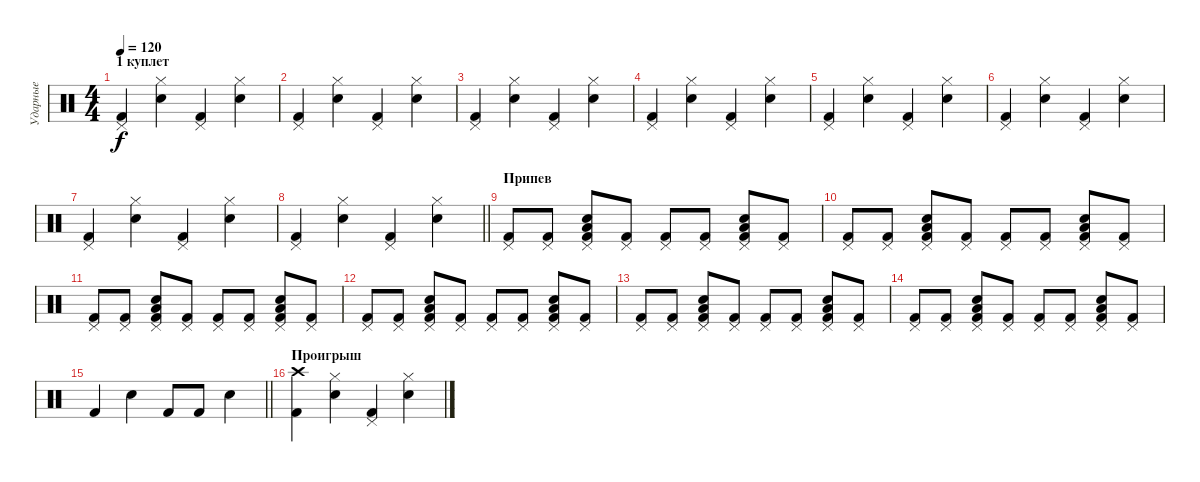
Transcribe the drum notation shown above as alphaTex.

\track ("Ударные" "Ударные") {instrument percussion}
\staff {score}
\articulation defaults
\ts (4 4)
\section ("" "1 куплет")
\tempo 120
\clef neutral
\ks c
("Pedal Hi-Hat (hit)" "Kick (hit) 2").4{dy f} ("Hi-Hat (closed)" "Snare (hit) 2").4 ("Pedal Hi-Hat (hit)" "Kick (hit) 2").4 ("Hi-Hat (closed)" "Snare (hit) 2").4 |
("Pedal Hi-Hat (hit)" "Kick (hit) 2").4 ("Hi-Hat (closed)" "Snare (hit) 2").4 ("Pedal Hi-Hat (hit)" "Kick (hit) 2").4 ("Hi-Hat (closed)" "Snare (hit) 2").4 |
("Pedal Hi-Hat (hit)" "Kick (hit) 2").4 ("Hi-Hat (closed)" "Snare (hit) 2").4 ("Pedal Hi-Hat (hit)" "Kick (hit) 2").4 ("Hi-Hat (closed)" "Snare (hit) 2").4 |
("Pedal Hi-Hat (hit)" "Kick (hit) 2").4 ("Hi-Hat (closed)" "Snare (hit) 2").4 ("Pedal Hi-Hat (hit)" "Kick (hit) 2").4 ("Hi-Hat (closed)" "Snare (hit) 2").4 |
("Pedal Hi-Hat (hit)" "Kick (hit) 2").4 ("Hi-Hat (closed)" "Snare (hit) 2").4 ("Pedal Hi-Hat (hit)" "Kick (hit) 2").4 ("Hi-Hat (closed)" "Snare (hit) 2").4 |
("Pedal Hi-Hat (hit)" "Kick (hit) 2").4 ("Hi-Hat (closed)" "Snare (hit) 2").4 ("Pedal Hi-Hat (hit)" "Kick (hit) 2").4 ("Hi-Hat (closed)" "Snare (hit) 2").4 |
("Pedal Hi-Hat (hit)" "Kick (hit) 2").4 ("Hi-Hat (closed)" "Snare (hit) 2").4 ("Pedal Hi-Hat (hit)" "Kick (hit) 2").4 ("Hi-Hat (closed)" "Snare (hit) 2").4 |
\barLineRight lightlight
("Pedal Hi-Hat (hit)" "Kick (hit) 2").4 ("Hi-Hat (closed)" "Snare (hit) 2").4 ("Pedal Hi-Hat (hit)" "Kick (hit) 2").4 ("Hi-Hat (closed)" "Snare (hit) 2").4 |
\section ("" "Припев")
("Pedal Hi-Hat (hit)" "Kick (hit) 2").8 ("Pedal Hi-Hat (hit)" "Kick (hit) 2").8 ("Pedal Hi-Hat (hit)" "Snare (hit) 2" "Low Tom (hit)" "Kick (hit) 2").8{bd 60} ("Pedal Hi-Hat (hit)" "Kick (hit) 2").8 ("Pedal Hi-Hat (hit)" "Kick (hit) 2").8 ("Pedal Hi-Hat (hit)" "Kick (hit) 2").8 ("Pedal Hi-Hat (hit)" "Snare (hit) 2" "Low Tom (hit)" "Kick (hit) 2").8{bd 60} ("Pedal Hi-Hat (hit)" "Kick (hit) 2").8 |
("Pedal Hi-Hat (hit)" "Kick (hit) 2").8 ("Pedal Hi-Hat (hit)" "Kick (hit) 2").8 ("Pedal Hi-Hat (hit)" "Snare (hit) 2" "Low Tom (hit)" "Kick (hit) 2").8{bd 60} ("Pedal Hi-Hat (hit)" "Kick (hit) 2").8 ("Pedal Hi-Hat (hit)" "Kick (hit) 2").8 ("Pedal Hi-Hat (hit)" "Kick (hit) 2").8 ("Pedal Hi-Hat (hit)" "Snare (hit) 2" "Low Tom (hit)" "Kick (hit) 2").8{bd 60} ("Pedal Hi-Hat (hit)" "Kick (hit) 2").8 |
("Pedal Hi-Hat (hit)" "Kick (hit) 2").8 ("Pedal Hi-Hat (hit)" "Kick (hit) 2").8 ("Pedal Hi-Hat (hit)" "Snare (hit) 2" "Low Tom (hit)" "Kick (hit) 2").8{bd 60} ("Pedal Hi-Hat (hit)" "Kick (hit) 2").8 ("Pedal Hi-Hat (hit)" "Kick (hit) 2").8 ("Pedal Hi-Hat (hit)" "Kick (hit) 2").8 ("Pedal Hi-Hat (hit)" "Snare (hit) 2" "Low Tom (hit)" "Kick (hit) 2").8{bd 60} ("Pedal Hi-Hat (hit)" "Kick (hit) 2").8 |
("Pedal Hi-Hat (hit)" "Kick (hit) 2").8 ("Pedal Hi-Hat (hit)" "Kick (hit) 2").8 ("Pedal Hi-Hat (hit)" "Snare (hit) 2" "Low Tom (hit)" "Kick (hit) 2").8{bd 60} ("Pedal Hi-Hat (hit)" "Kick (hit) 2").8 ("Pedal Hi-Hat (hit)" "Kick (hit) 2").8 ("Pedal Hi-Hat (hit)" "Kick (hit) 2").8 ("Pedal Hi-Hat (hit)" "Snare (hit) 2" "Low Tom (hit)" "Kick (hit) 2").8{bd 60} ("Pedal Hi-Hat (hit)" "Kick (hit) 2").8 |
("Pedal Hi-Hat (hit)" "Kick (hit) 2").8 ("Pedal Hi-Hat (hit)" "Kick (hit) 2").8 ("Pedal Hi-Hat (hit)" "Snare (hit) 2" "Low Tom (hit)" "Kick (hit) 2").8{bd 60} ("Pedal Hi-Hat (hit)" "Kick (hit) 2").8 ("Pedal Hi-Hat (hit)" "Kick (hit) 2").8 ("Pedal Hi-Hat (hit)" "Kick (hit) 2").8 ("Pedal Hi-Hat (hit)" "Snare (hit) 2" "Low Tom (hit)" "Kick (hit) 2").8{bd 60} ("Pedal Hi-Hat (hit)" "Kick (hit) 2").8 |
("Pedal Hi-Hat (hit)" "Kick (hit) 2").8 ("Pedal Hi-Hat (hit)" "Kick (hit) 2").8 ("Pedal Hi-Hat (hit)" "Snare (hit) 2" "Low Tom (hit)" "Kick (hit) 2").8{bd 60} ("Pedal Hi-Hat (hit)" "Kick (hit) 2").8 ("Pedal Hi-Hat (hit)" "Kick (hit) 2").8 ("Pedal Hi-Hat (hit)" "Kick (hit) 2").8 ("Pedal Hi-Hat (hit)" "Snare (hit) 2" "Low Tom (hit)" "Kick (hit) 2").8{bd 60} ("Pedal Hi-Hat (hit)" "Kick (hit) 2").8 |
\barLineRight lightlight "Kick (hit) 2".4 "Snare (hit) 2".4 "Kick (hit) 2".8 "Kick (hit) 2".8 "Snare (hit) 2".4
|
\section ("" "Проигрыш")
("Crash high (hit)" "Kick (hit) 2").4 ("Hi-Hat (closed)" "Snare (hit) 2").4 ("Pedal Hi-Hat (hit)" "Kick (hit) 2").4 ("Hi-Hat (closed)" "Snare (hit) 2").4
